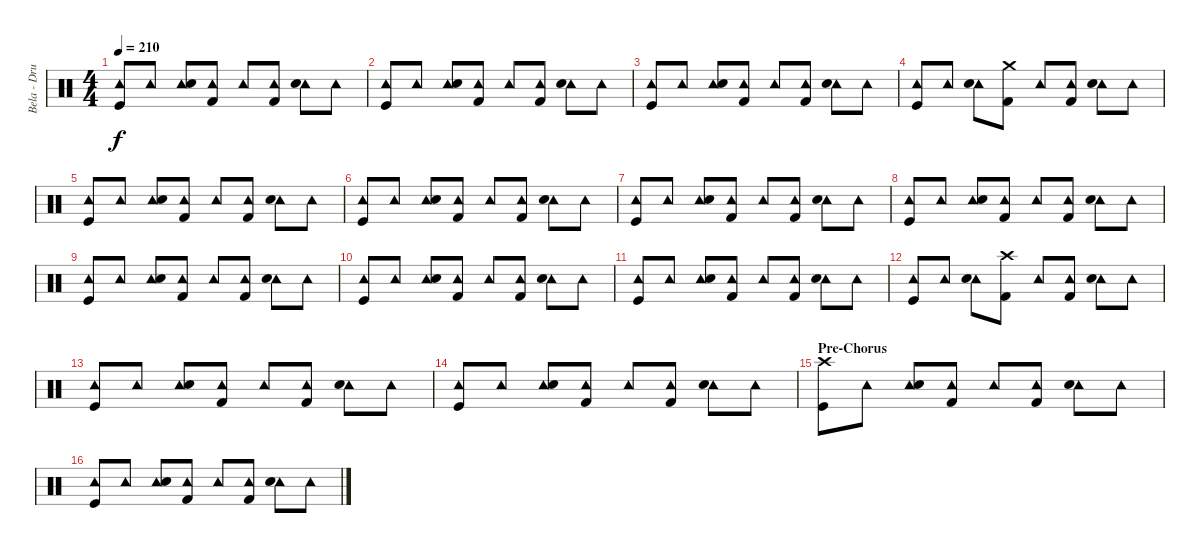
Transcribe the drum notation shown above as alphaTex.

\track ("Bela - Drums" "Bela - Dru") {instrument percussion}
\staff {score}
\articulation defaults
\ts (4 4)
\tempo 210
\clef neutral
\ks c
("Tambourine (hit)" "Kick (hit)").8{dy f} "Tambourine (hit)".8 ("Tambourine (hit)" "Electric Snare (hit)").8 ("Tambourine (hit)" "Kick (hit) 2").8 "Tambourine (hit)".8 ("Tambourine (hit)" "Kick (hit) 2").8 ("Tambourine (hit)" "Electric Snare (hit)").8 "Tambourine (hit)".8 |
("Tambourine (hit)" "Kick (hit)").8 "Tambourine (hit)".8 ("Tambourine (hit)" "Electric Snare (hit)").8 ("Tambourine (hit)" "Kick (hit) 2").8 "Tambourine (hit)".8 ("Tambourine (hit)" "Kick (hit) 2").8 ("Tambourine (hit)" "Electric Snare (hit)").8 "Tambourine (hit)".8 |
("Tambourine (hit)" "Kick (hit)").8 "Tambourine (hit)".8 ("Tambourine (hit)" "Electric Snare (hit)").8 ("Tambourine (hit)" "Kick (hit) 2").8 "Tambourine (hit)".8 ("Tambourine (hit)" "Kick (hit) 2").8 ("Tambourine (hit)" "Electric Snare (hit)").8 "Tambourine (hit)".8 |
("Tambourine (hit)" "Kick (hit)").8 "Tambourine (hit)".8 ("Tambourine (hit)" "Electric Snare (hit)").8 ("Crash medium (hit)" "Kick (hit) 2").8 "Tambourine (hit)".8 ("Tambourine (hit)" "Kick (hit) 2").8 ("Tambourine (hit)" "Electric Snare (hit)").8 "Tambourine (hit)".8 |
("Tambourine (hit)" "Kick (hit)").8 "Tambourine (hit)".8 ("Tambourine (hit)" "Electric Snare (hit)").8 ("Tambourine (hit)" "Kick (hit) 2").8 "Tambourine (hit)".8 ("Tambourine (hit)" "Kick (hit) 2").8 ("Tambourine (hit)" "Electric Snare (hit)").8 "Tambourine (hit)".8 |
("Tambourine (hit)" "Kick (hit)").8 "Tambourine (hit)".8 ("Tambourine (hit)" "Electric Snare (hit)").8 ("Tambourine (hit)" "Kick (hit) 2").8 "Tambourine (hit)".8 ("Tambourine (hit)" "Kick (hit) 2").8 ("Tambourine (hit)" "Electric Snare (hit)").8 "Tambourine (hit)".8 |
("Tambourine (hit)" "Kick (hit)").8 "Tambourine (hit)".8 ("Tambourine (hit)" "Electric Snare (hit)").8 ("Tambourine (hit)" "Kick (hit) 2").8 "Tambourine (hit)".8 ("Tambourine (hit)" "Kick (hit) 2").8 ("Tambourine (hit)" "Electric Snare (hit)").8 "Tambourine (hit)".8 |
("Tambourine (hit)" "Kick (hit)").8 "Tambourine (hit)".8 ("Tambourine (hit)" "Electric Snare (hit)").8 ("Tambourine (hit)" "Kick (hit) 2").8 "Tambourine (hit)".8 ("Tambourine (hit)" "Kick (hit) 2").8 ("Tambourine (hit)" "Electric Snare (hit)").8 "Tambourine (hit)".8 |
("Tambourine (hit)" "Kick (hit)").8 "Tambourine (hit)".8 ("Tambourine (hit)" "Electric Snare (hit)").8 ("Tambourine (hit)" "Kick (hit) 2").8 "Tambourine (hit)".8 ("Tambourine (hit)" "Kick (hit) 2").8 ("Tambourine (hit)" "Electric Snare (hit)").8 "Tambourine (hit)".8 |
("Tambourine (hit)" "Kick (hit)").8 "Tambourine (hit)".8 ("Tambourine (hit)" "Electric Snare (hit)").8 ("Tambourine (hit)" "Kick (hit) 2").8 "Tambourine (hit)".8 ("Tambourine (hit)" "Kick (hit) 2").8 ("Tambourine (hit)" "Electric Snare (hit)").8 "Tambourine (hit)".8 |
("Tambourine (hit)" "Kick (hit)").8 "Tambourine (hit)".8 ("Tambourine (hit)" "Electric Snare (hit)").8 ("Tambourine (hit)" "Kick (hit) 2").8 "Tambourine (hit)".8 ("Tambourine (hit)" "Kick (hit) 2").8 ("Tambourine (hit)" "Electric Snare (hit)").8 "Tambourine (hit)".8 |
("Tambourine (hit)" "Kick (hit)").8 "Tambourine (hit)".8 ("Tambourine (hit)" "Electric Snare (hit)").8 ("Crash high (hit)" "Kick (hit) 2").8 "Tambourine (hit)".8 ("Tambourine (hit)" "Kick (hit) 2").8 ("Tambourine (hit)" "Electric Snare (hit)").8 "Tambourine (hit)".8 |
("Tambourine (hit)" "Kick (hit)").8 "Tambourine (hit)".8 ("Tambourine (hit)" "Electric Snare (hit)").8 ("Tambourine (hit)" "Kick (hit) 2").8 "Tambourine (hit)".8 ("Tambourine (hit)" "Kick (hit) 2").8 ("Tambourine (hit)" "Electric Snare (hit)").8 "Tambourine (hit)".8 |
("Tambourine (hit)" "Kick (hit)").8 "Tambourine (hit)".8 ("Tambourine (hit)" "Electric Snare (hit)").8 ("Tambourine (hit)" "Kick (hit) 2").8 "Tambourine (hit)".8 ("Tambourine (hit)" "Kick (hit) 2").8 ("Tambourine (hit)" "Electric Snare (hit)").8 "Tambourine (hit)".8 |
\section ("" "Pre-Chorus")
("Crash high (hit)" "Kick (hit)").8 "Tambourine (hit)".8 ("Tambourine (hit)" "Electric Snare (hit)").8 ("Tambourine (hit)" "Kick (hit) 2").8 "Tambourine (hit)".8 ("Tambourine (hit)" "Kick (hit) 2").8 ("Tambourine (hit)" "Electric Snare (hit)").8 "Tambourine (hit)".8 |
("Tambourine (hit)" "Kick (hit)").8 "Tambourine (hit)".8 ("Tambourine (hit)" "Electric Snare (hit)").8 ("Tambourine (hit)" "Kick (hit) 2").8 "Tambourine (hit)".8 ("Tambourine (hit)" "Kick (hit) 2").8 ("Tambourine (hit)" "Electric Snare (hit)").8 "Tambourine (hit)".8
